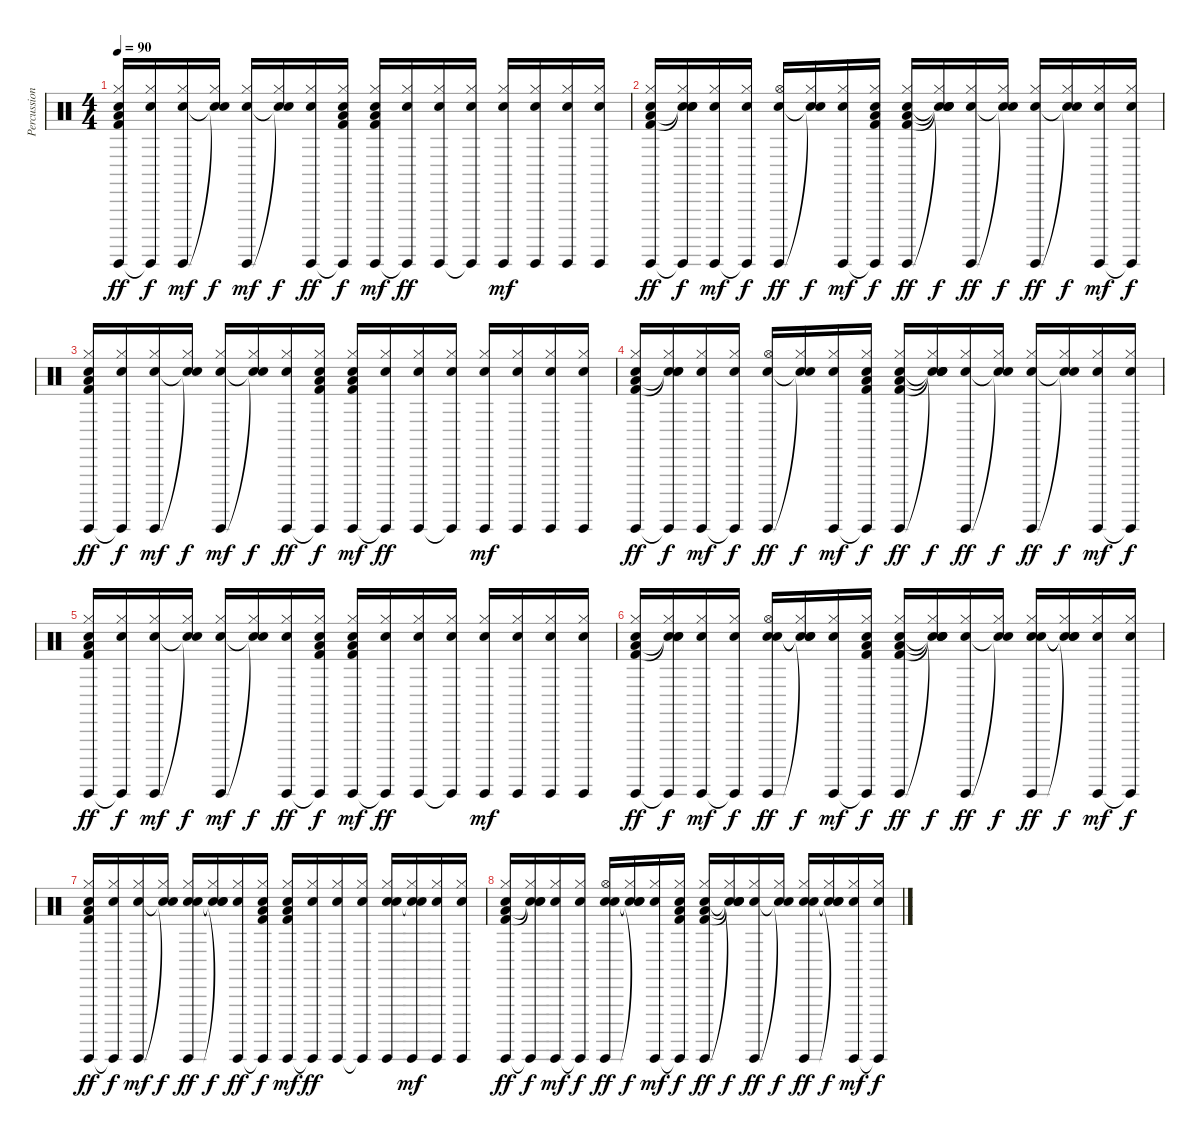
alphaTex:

\track ("Percussion" "Percussion") {instrument percussion}
\staff {score}
\articulation defaults
\ts (4 4)
\tempo 90
\clef neutral
\ks c
("Guiro (hit)" "Hi-Hat (closed)" "Hand Clap (hit)" "Low Floor Tom (hit)" "Kick (hit) 2").16{dy ff} ("Guiro (hit)"{t} "Hi-Hat (closed)" "Hand Clap (hit)").16{dy f} ("Guiro (hit)" "Hi-Hat (closed)" "Hand Clap (hit)").16{dy mf} ("Snare (hit)"{t} "Hi-Hat (closed)" "Snare (hit)"{t}).16{dy f} ("Guiro (hit)" "Hi-Hat (closed)" "Hand Clap (hit)").16{dy mf} ("Snare (hit)"{t} "Hi-Hat (closed)" "Snare (hit)"{t}).16{dy f} ("Guiro (hit)" "Hi-Hat (closed)" "Hand Clap (hit)").16{dy ff} ("Guiro (hit)"{t} "Hi-Hat (closed)" "Hand Clap (hit)" "Low Floor Tom (hit)" "Kick (hit) 2").16{dy f} ("Guiro (hit)" "Hi-Hat (closed)" "Hand Clap (hit)" "Low Floor Tom (hit)" "Kick (hit) 2").16{dy mf} ("Guiro (hit)"{t} "Hi-Hat (closed)" "Hand Clap (hit)").16{dy ff} ("Guiro (hit)" "Hi-Hat (closed)" "Hand Clap (hit)").16 ("Guiro (hit)"{t} "Hi-Hat (closed)" "Hand Clap (hit)").16 ("Guiro (hit)" "Hi-Hat (closed)" "Hand Clap (hit)").16{dy mf} ("Guiro (hit)" "Hi-Hat (closed)" "Hand Clap (hit)").16 ("Guiro (hit)" "Hi-Hat (closed)" "Hand Clap (hit)").16 ("Guiro (hit)" "Hi-Hat (closed)" "Hand Clap (hit)").16 |
("Guiro (hit)" "Hi-Hat (closed)" "Hand Clap (hit)" "Low Floor Tom (hit)" "Kick (hit) 2").16{dy ff} ("Guiro (hit)"{t} "Hi-Hat (closed)" "Hand Clap (hit)" "Snare (hit)"{t} "Snare (hit)"{t}).16{dy f} ("Guiro (hit)" "Hi-Hat (closed)" "Hand Clap (hit)").16{dy mf} ("Guiro (hit)"{t} "Hi-Hat (closed)" "Hand Clap (hit)").16{dy f} ("Guiro (hit)" "Hi-Hat (open)" "Hand Clap (hit)").16{dy ff} ("Snare (hit)"{t} "Hi-Hat (closed)" "Snare (hit)"{t}).16{dy f} ("Guiro (hit)" "Hi-Hat (closed)" "Hand Clap (hit)").16{dy mf} ("Guiro (hit)"{t} "Hi-Hat (closed)" "Hand Clap (hit)" "Low Floor Tom (hit)" "Kick (hit) 2").16{dy f} ("Guiro (hit)" "Hi-Hat (closed)" "Hand Clap (hit)" "Low Floor Tom (hit)" "Kick (hit) 2").16{dy ff} ("Snare (hit)"{t} "Hi-Hat (closed)" "Snare (hit)"{t} "Snare (hit)"{t} "Snare (hit)"{t}).16{dy f} ("Guiro (hit)" "Hi-Hat (closed)" "Hand Clap (hit)").16{dy ff} ("Snare (hit)"{t} "Hi-Hat (closed)" "Snare (hit)"{t}).16{dy f} ("Guiro (hit)" "Hi-Hat (closed)" "Hand Clap (hit)").16{dy ff} ("Snare (hit)"{t} "Hi-Hat (closed)" "Snare (hit)"{t}).16{dy f} ("Guiro (hit)" "Hi-Hat (closed)" "Hand Clap (hit)").16{dy mf} ("Guiro (hit)"{t} "Hi-Hat (closed)" "Hand Clap (hit)").16{dy f} |
("Guiro (hit)" "Hi-Hat (closed)" "Hand Clap (hit)" "Low Floor Tom (hit)" "Kick (hit) 2").16{dy ff} ("Guiro (hit)"{t} "Hi-Hat (closed)" "Hand Clap (hit)").16{dy f} ("Guiro (hit)" "Hi-Hat (closed)" "Hand Clap (hit)").16{dy mf} ("Snare (hit)"{t} "Hi-Hat (closed)" "Snare (hit)"{t}).16{dy f} ("Guiro (hit)" "Hi-Hat (closed)" "Hand Clap (hit)").16{dy mf} ("Snare (hit)"{t} "Hi-Hat (closed)" "Snare (hit)"{t}).16{dy f} ("Guiro (hit)" "Hi-Hat (closed)" "Hand Clap (hit)").16{dy ff} ("Guiro (hit)"{t} "Hi-Hat (closed)" "Hand Clap (hit)" "Low Floor Tom (hit)" "Kick (hit) 2").16{dy f} ("Guiro (hit)" "Hi-Hat (closed)" "Hand Clap (hit)" "Low Floor Tom (hit)" "Kick (hit) 2").16{dy mf} ("Guiro (hit)"{t} "Hi-Hat (closed)" "Hand Clap (hit)").16{dy ff} ("Guiro (hit)" "Hi-Hat (closed)" "Hand Clap (hit)").16 ("Guiro (hit)"{t} "Hi-Hat (closed)" "Hand Clap (hit)").16 ("Guiro (hit)" "Hi-Hat (closed)" "Hand Clap (hit)").16{dy mf} ("Guiro (hit)" "Hi-Hat (closed)" "Hand Clap (hit)").16 ("Guiro (hit)" "Hi-Hat (closed)" "Hand Clap (hit)").16 ("Guiro (hit)" "Hi-Hat (closed)" "Hand Clap (hit)").16 |
("Guiro (hit)" "Hi-Hat (closed)" "Hand Clap (hit)" "Low Floor Tom (hit)" "Kick (hit) 2").16{dy ff} ("Guiro (hit)"{t} "Hi-Hat (closed)" "Hand Clap (hit)" "Snare (hit)"{t} "Snare (hit)"{t}).16{dy f} ("Guiro (hit)" "Hi-Hat (closed)" "Hand Clap (hit)").16{dy mf} ("Guiro (hit)"{t} "Hi-Hat (closed)" "Hand Clap (hit)").16{dy f} ("Guiro (hit)" "Hi-Hat (open)" "Hand Clap (hit)").16{dy ff} ("Snare (hit)"{t} "Hi-Hat (closed)" "Snare (hit)"{t}).16{dy f} ("Guiro (hit)" "Hi-Hat (closed)" "Hand Clap (hit)").16{dy mf} ("Guiro (hit)"{t} "Hi-Hat (closed)" "Hand Clap (hit)" "Low Floor Tom (hit)" "Kick (hit) 2").16{dy f} ("Guiro (hit)" "Hi-Hat (closed)" "Hand Clap (hit)" "Low Floor Tom (hit)" "Kick (hit) 2").16{dy ff} ("Snare (hit)"{t} "Hi-Hat (closed)" "Snare (hit)"{t} "Snare (hit)"{t} "Snare (hit)"{t}).16{dy f} ("Guiro (hit)" "Hi-Hat (closed)" "Hand Clap (hit)").16{dy ff} ("Snare (hit)"{t} "Hi-Hat (closed)" "Snare (hit)"{t}).16{dy f} ("Guiro (hit)" "Hi-Hat (closed)" "Hand Clap (hit)").16{dy ff} ("Snare (hit)"{t} "Hi-Hat (closed)" "Snare (hit)"{t}).16{dy f} ("Guiro (hit)" "Hi-Hat (closed)" "Hand Clap (hit)").16{dy mf} ("Guiro (hit)"{t} "Hi-Hat (closed)" "Hand Clap (hit)").16{dy f} |
("Guiro (hit)" "Hi-Hat (closed)" "Hand Clap (hit)" "Low Floor Tom (hit)" "Kick (hit) 2").16{dy ff} ("Guiro (hit)"{t} "Hi-Hat (closed)" "Hand Clap (hit)").16{dy f} ("Guiro (hit)" "Hi-Hat (closed)" "Hand Clap (hit)").16{dy mf} ("Snare (hit)"{t} "Hi-Hat (closed)" "Snare (hit)"{t}).16{dy f} ("Guiro (hit)" "Hi-Hat (closed)" "Hand Clap (hit)").16{dy mf} ("Snare (hit)"{t} "Hi-Hat (closed)" "Snare (hit)"{t}).16{dy f} ("Guiro (hit)" "Hi-Hat (closed)" "Hand Clap (hit)").16{dy ff} ("Guiro (hit)"{t} "Hi-Hat (closed)" "Hand Clap (hit)" "Low Floor Tom (hit)" "Kick (hit) 2").16{dy f} ("Guiro (hit)" "Hi-Hat (closed)" "Hand Clap (hit)" "Low Floor Tom (hit)" "Kick (hit) 2").16{dy mf} ("Guiro (hit)"{t} "Hi-Hat (closed)" "Hand Clap (hit)").16{dy ff} ("Guiro (hit)" "Hi-Hat (closed)" "Hand Clap (hit)").16 ("Guiro (hit)"{t} "Hi-Hat (closed)" "Hand Clap (hit)").16 ("Guiro (hit)" "Hi-Hat (closed)" "Hand Clap (hit)").16{dy mf} ("Guiro (hit)" "Hi-Hat (closed)" "Hand Clap (hit)").16 ("Guiro (hit)" "Hi-Hat (closed)" "Hand Clap (hit)").16 ("Guiro (hit)" "Hi-Hat (closed)" "Hand Clap (hit)").16 |
("Guiro (hit)" "Hi-Hat (closed)" "Hand Clap (hit)" "Low Floor Tom (hit)" "Kick (hit) 2").16{dy ff} ("Guiro (hit)"{t} "Hi-Hat (closed)" "Hand Clap (hit)" "Snare (hit)"{t} "Snare (hit)"{t}).16{dy f} ("Guiro (hit)" "Hi-Hat (closed)" "Hand Clap (hit)").16{dy mf} ("Guiro (hit)"{t} "Hi-Hat (closed)" "Hand Clap (hit)").16{dy f} ("Guiro (hit)" "Hi-Hat (open)" "Hand Clap (hit)" "Snare (hit) 2").16{dy ff} ("Snare (hit)"{t} "Hi-Hat (closed)" "Snare (hit)"{t} "Snare (hit)"{t}).16{dy f} ("Guiro (hit)" "Hi-Hat (closed)" "Hand Clap (hit)").16{dy mf} ("Guiro (hit)"{t} "Hi-Hat (closed)" "Hand Clap (hit)" "Low Floor Tom (hit)" "Kick (hit) 2").16{dy f} ("Guiro (hit)" "Hi-Hat (closed)" "Hand Clap (hit)" "Low Floor Tom (hit)" "Kick (hit) 2").16{dy ff} ("Snare (hit)"{t} "Hi-Hat (closed)" "Snare (hit)"{t} "Snare (hit)"{t} "Snare (hit)"{t}).16{dy f} ("Guiro (hit)" "Hi-Hat (closed)" "Hand Clap (hit)").16{dy ff} ("Snare (hit)"{t} "Hi-Hat (closed)" "Snare (hit)"{t}).16{dy f} ("Guiro (hit)" "Hi-Hat (closed)" "Hand Clap (hit)" "Snare (hit) 2").16{dy ff} ("Snare (hit)"{t} "Hi-Hat (closed)" "Snare (hit)"{t} "Snare (hit)"{t}).16{dy f} ("Guiro (hit)" "Hi-Hat (closed)" "Hand Clap (hit)").16{dy mf} ("Guiro (hit)"{t} "Hi-Hat (closed)" "Hand Clap (hit)").16{dy f} |
("Guiro (hit)" "Hi-Hat (closed)" "Hand Clap (hit)" "Low Floor Tom (hit)" "Kick (hit) 2").16{dy ff} ("Guiro (hit)"{t} "Hi-Hat (closed)" "Hand Clap (hit)").16{dy f} ("Guiro (hit)" "Hi-Hat (closed)" "Hand Clap (hit)").16{dy mf} ("Snare (hit)"{t} "Hi-Hat (closed)" "Snare (hit)"{t}).16{dy f} ("Guiro (hit)" "Hi-Hat (closed)" "Hand Clap (hit)" "Snare (hit) 2").16{dy ff} ("Snare (hit)"{t} "Hi-Hat (closed)" "Snare (hit)"{t} "Snare (hit)"{t}).16{dy f} ("Guiro (hit)" "Hi-Hat (closed)" "Hand Clap (hit)").16{dy ff} ("Guiro (hit)"{t} "Hi-Hat (closed)" "Hand Clap (hit)" "Low Floor Tom (hit)" "Kick (hit) 2").16{dy f} ("Guiro (hit)" "Hi-Hat (closed)" "Hand Clap (hit)" "Low Floor Tom (hit)" "Kick (hit) 2").16{dy mf} ("Guiro (hit)"{t} "Hi-Hat (closed)" "Hand Clap (hit)").16{dy ff} ("Guiro (hit)" "Hi-Hat (closed)" "Hand Clap (hit)").16 ("Guiro (hit)"{t} "Hi-Hat (closed)" "Hand Clap (hit)").16 ("Guiro (hit)" "Hi-Hat (closed)" "Hand Clap (hit)" "Snare (hit) 2").16 ("Guiro (hit)" "Hi-Hat (closed)" "Hand Clap (hit)" "Snare (hit)"{t}).16{dy mf} ("Guiro (hit)" "Hi-Hat (closed)" "Hand Clap (hit)").16 ("Guiro (hit)" "Hi-Hat (closed)" "Hand Clap (hit)").16 |
("Guiro (hit)" "Hi-Hat (closed)" "Hand Clap (hit)" "Low Floor Tom (hit)" "Kick (hit) 2").16{dy ff} ("Guiro (hit)"{t} "Hi-Hat (closed)" "Hand Clap (hit)" "Snare (hit)"{t} "Snare (hit)"{t}).16{dy f} ("Guiro (hit)" "Hi-Hat (closed)" "Hand Clap (hit)").16{dy mf} ("Guiro (hit)"{t} "Hi-Hat (closed)" "Hand Clap (hit)").16{dy f} ("Guiro (hit)" "Hi-Hat (open)" "Hand Clap (hit)" "Snare (hit) 2").16{dy ff} ("Snare (hit)"{t} "Hi-Hat (closed)" "Snare (hit)"{t} "Snare (hit)"{t}).16{dy f} ("Guiro (hit)" "Hi-Hat (closed)" "Hand Clap (hit)").16{dy mf} ("Guiro (hit)"{t} "Hi-Hat (closed)" "Hand Clap (hit)" "Low Floor Tom (hit)" "Kick (hit) 2").16{dy f} ("Guiro (hit)" "Hi-Hat (closed)" "Hand Clap (hit)" "Low Floor Tom (hit)" "Kick (hit) 2").16{dy ff} ("Snare (hit)"{t} "Hi-Hat (closed)" "Snare (hit)"{t} "Snare (hit)"{t} "Snare (hit)"{t}).16{dy f} ("Guiro (hit)" "Hi-Hat (closed)" "Hand Clap (hit)").16{dy ff} ("Snare (hit)"{t} "Hi-Hat (closed)" "Snare (hit)"{t}).16{dy f} ("Guiro (hit)" "Hi-Hat (closed)" "Hand Clap (hit)" "Snare (hit) 2").16{dy ff} ("Snare (hit)"{t} "Hi-Hat (closed)" "Snare (hit)"{t} "Snare (hit)"{t}).16{dy f} ("Guiro (hit)" "Hi-Hat (closed)" "Hand Clap (hit)").16{dy mf} ("Guiro (hit)"{t} "Hi-Hat (closed)" "Hand Clap (hit)").16{dy f}
